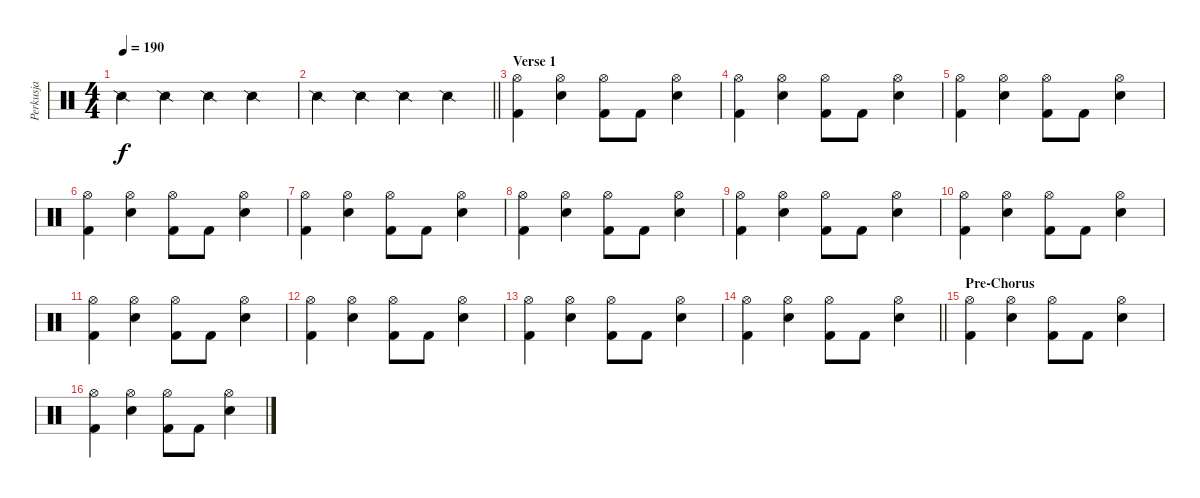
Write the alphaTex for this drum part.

\track ("Perkusja" "Perkusja") {instrument percussion}
\staff {score}
\articulation defaults
\ts (4 4)
\tempo 190
\clef neutral
\ks c "Snare (side stick) 2".4{dy f} "Snare (side stick) 2".4 "Snare (side stick) 2".4 "Snare (side stick) 2".4
|
\barLineRight lightlight "Snare (side stick) 2".4 "Snare (side stick) 2".4 "Snare (side stick) 2".4 "Snare (side stick) 2".4
|
\section ("" "Verse 1")
("Kick (hit) 2" "Hi-Hat (open)").4 ("Electric Snare (hit)" "Hi-Hat (open)").4 ("Kick (hit) 2" "Hi-Hat (open)").8 "Kick (hit) 2".8 ("Electric Snare (hit)" "Hi-Hat (open)").4 |
("Kick (hit) 2" "Hi-Hat (open)").4 ("Electric Snare (hit)" "Hi-Hat (open)").4 ("Kick (hit) 2" "Hi-Hat (open)").8 "Kick (hit) 2".8 ("Electric Snare (hit)" "Hi-Hat (open)").4 |
("Kick (hit) 2" "Hi-Hat (open)").4 ("Electric Snare (hit)" "Hi-Hat (open)").4 ("Kick (hit) 2" "Hi-Hat (open)").8 "Kick (hit) 2".8 ("Electric Snare (hit)" "Hi-Hat (open)").4 |
("Kick (hit) 2" "Hi-Hat (open)").4 ("Electric Snare (hit)" "Hi-Hat (open)").4 ("Kick (hit) 2" "Hi-Hat (open)").8 "Kick (hit) 2".8 ("Electric Snare (hit)" "Hi-Hat (open)").4 |
("Kick (hit) 2" "Hi-Hat (open)").4 ("Electric Snare (hit)" "Hi-Hat (open)").4 ("Kick (hit) 2" "Hi-Hat (open)").8 "Kick (hit) 2".8 ("Electric Snare (hit)" "Hi-Hat (open)").4 |
("Kick (hit) 2" "Hi-Hat (open)").4 ("Electric Snare (hit)" "Hi-Hat (open)").4 ("Kick (hit) 2" "Hi-Hat (open)").8 "Kick (hit) 2".8 ("Electric Snare (hit)" "Hi-Hat (open)").4 |
("Kick (hit) 2" "Hi-Hat (open)").4 ("Electric Snare (hit)" "Hi-Hat (open)").4 ("Kick (hit) 2" "Hi-Hat (open)").8 "Kick (hit) 2".8 ("Electric Snare (hit)" "Hi-Hat (open)").4 |
("Kick (hit) 2" "Hi-Hat (open)").4 ("Electric Snare (hit)" "Hi-Hat (open)").4 ("Kick (hit) 2" "Hi-Hat (open)").8 "Kick (hit) 2".8 ("Electric Snare (hit)" "Hi-Hat (open)").4 |
("Kick (hit) 2" "Hi-Hat (open)").4 ("Electric Snare (hit)" "Hi-Hat (open)").4 ("Kick (hit) 2" "Hi-Hat (open)").8 "Kick (hit) 2".8 ("Electric Snare (hit)" "Hi-Hat (open)").4 |
("Kick (hit) 2" "Hi-Hat (open)").4 ("Electric Snare (hit)" "Hi-Hat (open)").4 ("Kick (hit) 2" "Hi-Hat (open)").8 "Kick (hit) 2".8 ("Electric Snare (hit)" "Hi-Hat (open)").4 |
("Kick (hit) 2" "Hi-Hat (open)").4 ("Electric Snare (hit)" "Hi-Hat (open)").4 ("Kick (hit) 2" "Hi-Hat (open)").8 "Kick (hit) 2".8 ("Electric Snare (hit)" "Hi-Hat (open)").4 |
\barLineRight lightlight
("Kick (hit) 2" "Hi-Hat (open)").4 ("Electric Snare (hit)" "Hi-Hat (open)").4 ("Kick (hit) 2" "Hi-Hat (open)").8 "Kick (hit) 2".8 ("Electric Snare (hit)" "Hi-Hat (open)").4 |
\section ("" "Pre-Chorus")
("Kick (hit) 2" "Hi-Hat (open)").4 ("Electric Snare (hit)" "Hi-Hat (open)").4 ("Kick (hit) 2" "Hi-Hat (open)").8 "Kick (hit) 2".8 ("Electric Snare (hit)" "Hi-Hat (open)").4 |
("Kick (hit) 2" "Hi-Hat (open)").4 ("Electric Snare (hit)" "Hi-Hat (open)").4 ("Kick (hit) 2" "Hi-Hat (open)").8 "Kick (hit) 2".8 ("Electric Snare (hit)" "Hi-Hat (open)").4
